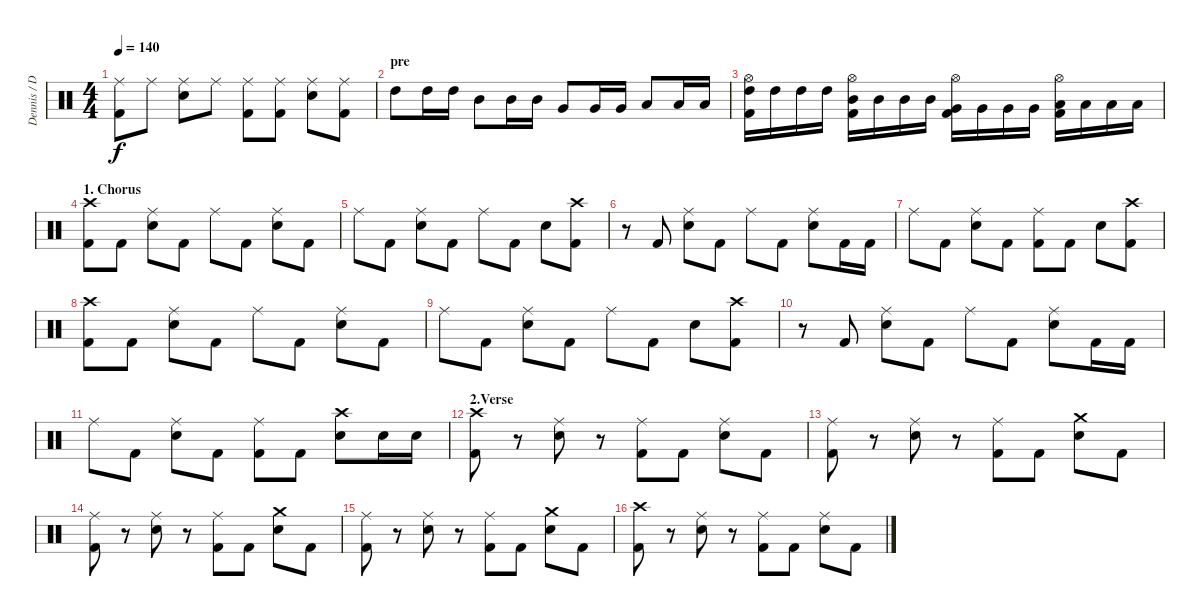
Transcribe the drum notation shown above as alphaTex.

\track ("Dennis / Drums" "Dennis / D") {instrument percussion}
\staff {score}
\articulation defaults
\ts (4 4)
\tempo 140
\clef neutral
\ks c
("Ride (middle)" "Kick (hit) 2").8{dy f} "Ride (middle)".8 ("Ride (middle)" "Electric Snare (hit)").8 "Ride (middle)".8 ("Ride (middle)" "Kick (hit) 2").8 ("Ride (middle)" "Kick (hit) 2").8 ("Ride (middle)" "Electric Snare (hit)").8 ("Ride (middle)" "Kick (hit) 2").8 |
\section ("" "pre")
"High Tom (hit)".8 "High Tom (hit)".16 "High Tom (hit)".16 "Mid Tom (hit)".8 "Mid Tom (hit)".16 "Mid Tom (hit)".16 "Very Low Tom (hit)".8 "Very Low Tom (hit)".16 "Very Low Tom (hit)".16 "Low Tom (hit)".8 "Low Tom (hit)".16 "Low Tom (hit)".16 |
("Hi-Hat (open)" "Kick (hit) 2" "High Tom (hit)").16 "High Tom (hit)".16 "High Tom (hit)".16 "High Tom (hit)".16 ("Hi-Hat (open)" "Kick (hit) 2" "Mid Tom (hit)").16 "Mid Tom (hit)".16 "Mid Tom (hit)".16 "Mid Tom (hit)".16 ("Hi-Hat (open)" "Kick (hit) 2" "Very Low Tom (hit)").16 "Very Low Tom (hit)".16 "Very Low Tom (hit)".16 "Very Low Tom (hit)".16 ("Hi-Hat (open)" "Kick (hit) 2" "Low Tom (hit)").16 "Low Tom (hit)".16 "Low Tom (hit)".16 "Low Tom (hit)".16 |
\section ("" "1. Chorus")
("Crash high (hit)" "Kick (hit) 2").8 "Kick (hit) 2".8 ("Ride (middle)" "Electric Snare (hit)").8 "Kick (hit) 2".8 "Ride (middle)".8 "Kick (hit) 2".8 ("Ride (middle)" "Electric Snare (hit)").8 "Kick (hit) 2".8 |
"Ride (middle)".8 "Kick (hit) 2".8 ("Ride (middle)" "Electric Snare (hit)").8 "Kick (hit) 2".8 "Ride (middle)".8 "Kick (hit) 2".8 "Electric Snare (hit)".8 ("Crash high (hit)" "Kick (hit) 2").8 |
r.8 "Kick (hit) 2".8 ("Ride (middle)" "Electric Snare (hit)").8 "Kick (hit) 2".8 "Ride (middle)".8 "Kick (hit) 2".8 ("Ride (middle)" "Electric Snare (hit)").8 "Kick (hit) 2".16 "Kick (hit) 2".16 |
"Ride (middle)".8 "Kick (hit) 2".8 ("Ride (middle)" "Electric Snare (hit)").8 "Kick (hit) 2".8 ("Ride (middle)" "Kick (hit) 2").8 "Kick (hit) 2".8 "Electric Snare (hit)".8 ("Crash high (hit)" "Kick (hit) 2").8 |
("Crash high (hit)" "Kick (hit) 2").8 "Kick (hit) 2".8 ("Ride (middle)" "Electric Snare (hit)").8 "Kick (hit) 2".8 "Ride (middle)".8 "Kick (hit) 2".8 ("Ride (middle)" "Electric Snare (hit)").8 "Kick (hit) 2".8 |
"Ride (middle)".8 "Kick (hit) 2".8 ("Ride (middle)" "Electric Snare (hit)").8 "Kick (hit) 2".8 "Ride (middle)".8 "Kick (hit) 2".8 "Electric Snare (hit)".8 ("Crash high (hit)" "Kick (hit) 2").8 |
r.8 "Kick (hit) 2".8 ("Ride (middle)" "Electric Snare (hit)").8 "Kick (hit) 2".8 "Ride (middle)".8 "Kick (hit) 2".8 ("Ride (middle)" "Electric Snare (hit)").8 "Kick (hit) 2".16 "Kick (hit) 2".16 |
"Ride (middle)".8 "Kick (hit) 2".8 ("Ride (middle)" "Electric Snare (hit)").8 "Kick (hit) 2".8 ("Ride (middle)" "Kick (hit) 2").8 "Kick (hit) 2".8 ("Crash high (hit)" "Electric Snare (hit)").8 "Electric Snare (hit)".16 "Electric Snare (hit)".16 |
\section ("" "2.Verse")
("Crash high (hit)" "Kick (hit) 2").8 r.8 ("Ride (middle)" "Electric Snare (hit)").8 r.8 ("Ride (middle)" "Kick (hit) 2").8 "Kick (hit) 2".8 ("Ride (middle)" "Electric Snare (hit)").8 "Kick (hit) 2".8 |
("Ride (middle)" "Kick (hit) 2").8 r.8 ("Ride (middle)" "Electric Snare (hit)").8 r.8 ("Ride (middle)" "Kick (hit) 2").8 "Kick (hit) 2".8 ("Crash medium (hit)" "Electric Snare (hit)").8 "Kick (hit) 2".8 |
("Ride (middle)" "Kick (hit) 2").8 r.8 ("Ride (middle)" "Electric Snare (hit)").8 r.8 ("Ride (middle)" "Kick (hit) 2").8 "Kick (hit) 2".8 ("Crash medium (hit)" "Electric Snare (hit)").8 "Kick (hit) 2".8 |
("Ride (middle)" "Kick (hit) 2").8 r.8 ("Ride (middle)" "Electric Snare (hit)").8 r.8 ("Ride (middle)" "Kick (hit) 2").8 "Kick (hit) 2".8 ("Crash medium (hit)" "Electric Snare (hit)").8 "Kick (hit) 2".8 |
("Crash high (hit)" "Kick (hit) 2").8 r.8 ("Ride (middle)" "Electric Snare (hit)").8 r.8 ("Ride (middle)" "Kick (hit) 2").8 "Kick (hit) 2".8 ("Ride (middle)" "Electric Snare (hit)").8 "Kick (hit) 2".8
